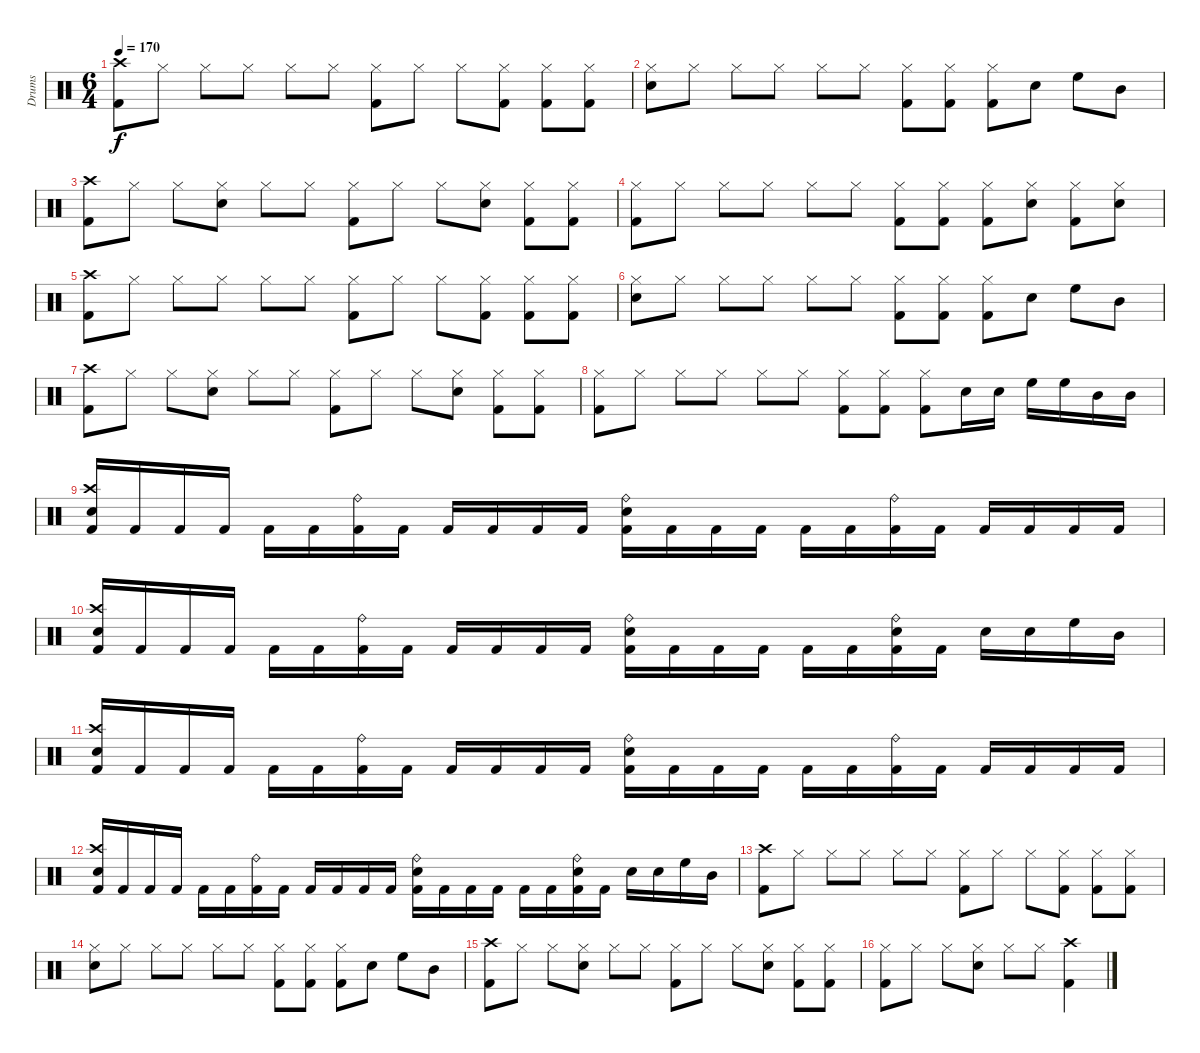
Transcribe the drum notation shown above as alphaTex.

\track ("Drums" "Drums") {instrument percussion}
\staff {score}
\articulation defaults
\ts (6 4)
\tempo 170
\clef neutral
\ks c
("Kick (hit) 2" "Crash high (hit)").8{dy f} "Hi-Hat (closed)".8 "Hi-Hat (closed)".8 "Hi-Hat (closed)".8 "Hi-Hat (closed)".8 "Hi-Hat (closed)".8 ("Kick (hit) 2" "Hi-Hat (closed)").8 "Hi-Hat (closed)".8 "Hi-Hat (closed)".8 ("Kick (hit) 2" "Hi-Hat (closed)").8 ("Kick (hit) 2" "Hi-Hat (closed)").8 ("Kick (hit) 2" "Hi-Hat (closed)").8 |
("Snare (hit) 2" "Hi-Hat (closed)").8 "Hi-Hat (closed)".8 "Hi-Hat (closed)".8 "Hi-Hat (closed)".8 "Hi-Hat (closed)".8 "Hi-Hat (closed)".8 ("Kick (hit) 2" "Hi-Hat (closed)").8 ("Kick (hit) 2" "Hi-Hat (closed)").8 ("Kick (hit) 2" "Hi-Hat (closed)").8 "Snare (hit) 2".8 "High Floor Tom (hit)".8 "Mid Tom (hit)".8 |
("Kick (hit) 2" "Crash high (hit)").8 "Hi-Hat (closed)".8 "Hi-Hat (closed)".8 ("Snare (hit) 2" "Hi-Hat (closed)").8 "Hi-Hat (closed)".8 "Hi-Hat (closed)".8 ("Kick (hit) 2" "Hi-Hat (closed)").8 "Hi-Hat (closed)".8 "Hi-Hat (closed)".8 ("Snare (hit) 2" "Hi-Hat (closed)").8 ("Kick (hit) 2" "Hi-Hat (closed)").8 ("Kick (hit) 2" "Hi-Hat (closed)").8 |
("Kick (hit) 2" "Hi-Hat (closed)").8 "Hi-Hat (closed)".8 "Hi-Hat (closed)".8 "Hi-Hat (closed)".8 "Hi-Hat (closed)".8 "Hi-Hat (closed)".8 ("Kick (hit) 2" "Hi-Hat (closed)").8 ("Kick (hit) 2" "Hi-Hat (closed)").8 ("Kick (hit) 2" "Hi-Hat (closed)").8 ("Snare (hit) 2" "Hi-Hat (closed)").8 ("Kick (hit) 2" "Hi-Hat (closed)").8 ("Snare (hit) 2" "Hi-Hat (closed)").8 |
("Kick (hit) 2" "Crash high (hit)").8 "Hi-Hat (closed)".8 "Hi-Hat (closed)".8 "Hi-Hat (closed)".8 "Hi-Hat (closed)".8 "Hi-Hat (closed)".8 ("Kick (hit) 2" "Hi-Hat (closed)").8 "Hi-Hat (closed)".8 "Hi-Hat (closed)".8 ("Kick (hit) 2" "Hi-Hat (closed)").8 ("Kick (hit) 2" "Hi-Hat (closed)").8 ("Kick (hit) 2" "Hi-Hat (closed)").8 |
("Snare (hit) 2" "Hi-Hat (closed)").8 "Hi-Hat (closed)".8 "Hi-Hat (closed)".8 "Hi-Hat (closed)".8 "Hi-Hat (closed)".8 "Hi-Hat (closed)".8 ("Kick (hit) 2" "Hi-Hat (closed)").8 ("Kick (hit) 2" "Hi-Hat (closed)").8 ("Kick (hit) 2" "Hi-Hat (closed)").8 "Snare (hit) 2".8 "High Floor Tom (hit)".8 "Mid Tom (hit)".8 |
("Kick (hit) 2" "Crash high (hit)").8 "Hi-Hat (closed)".8 "Hi-Hat (closed)".8 ("Snare (hit) 2" "Hi-Hat (closed)").8 "Hi-Hat (closed)".8 "Hi-Hat (closed)".8 ("Kick (hit) 2" "Hi-Hat (closed)").8 "Hi-Hat (closed)".8 "Hi-Hat (closed)".8 ("Snare (hit) 2" "Hi-Hat (closed)").8 ("Kick (hit) 2" "Hi-Hat (closed)").8 ("Kick (hit) 2" "Hi-Hat (closed)").8 |
("Kick (hit) 2" "Hi-Hat (closed)").8 "Hi-Hat (closed)".8 "Hi-Hat (closed)".8 "Hi-Hat (closed)".8 "Hi-Hat (closed)".8 "Hi-Hat (closed)".8 ("Kick (hit) 2" "Hi-Hat (closed)").8 ("Kick (hit) 2" "Hi-Hat (closed)").8 ("Kick (hit) 2" "Hi-Hat (closed)").8 "Snare (hit) 2".16 "Snare (hit) 2".16 "High Floor Tom (hit)".16 "High Floor Tom (hit)".16 "Mid Tom (hit)".16 "Mid Tom (hit)".16 |
("Snare (hit) 2" "Crash high (hit)" "Kick (hit) 2").16 "Kick (hit) 2".16 "Kick (hit) 2".16 "Kick (hit) 2".16 "Kick (hit) 2".16 "Kick (hit) 2".16 ("Kick (hit) 2" "Ride (bell)").16 "Kick (hit) 2".16 "Kick (hit) 2".16 "Kick (hit) 2".16 "Kick (hit) 2".16 "Kick (hit) 2".16 ("Snare (hit) 2" "Kick (hit) 2" "Ride (bell)").16 "Kick (hit) 2".16 "Kick (hit) 2".16 "Kick (hit) 2".16 "Kick (hit) 2".16 "Kick (hit) 2".16 ("Kick (hit) 2" "Ride (bell)").16 "Kick (hit) 2".16 "Kick (hit) 2".16 "Kick (hit) 2".16 "Kick (hit) 2".16 "Kick (hit) 2".16 |
("Snare (hit) 2" "Crash high (hit)" "Kick (hit) 2").16 "Kick (hit) 2".16 "Kick (hit) 2".16 "Kick (hit) 2".16 "Kick (hit) 2".16 "Kick (hit) 2".16 ("Kick (hit) 2" "Ride (bell)").16 "Kick (hit) 2".16 "Kick (hit) 2".16 "Kick (hit) 2".16 "Kick (hit) 2".16 "Kick (hit) 2".16 ("Snare (hit) 2" "Kick (hit) 2" "Ride (bell)").16 "Kick (hit) 2".16 "Kick (hit) 2".16 "Kick (hit) 2".16 "Kick (hit) 2".16 "Kick (hit) 2".16 ("Snare (hit) 2" "Kick (hit) 2" "Ride (bell)").16 "Kick (hit) 2".16 "Snare (hit) 2".16 "Snare (hit) 2".16 "High Floor Tom (hit)".16 "Mid Tom (hit)".16 |
("Snare (hit) 2" "Crash high (hit)" "Kick (hit) 2").16 "Kick (hit) 2".16 "Kick (hit) 2".16 "Kick (hit) 2".16 "Kick (hit) 2".16 "Kick (hit) 2".16 ("Kick (hit) 2" "Ride (bell)").16 "Kick (hit) 2".16 "Kick (hit) 2".16 "Kick (hit) 2".16 "Kick (hit) 2".16 "Kick (hit) 2".16 ("Snare (hit) 2" "Kick (hit) 2" "Ride (bell)").16 "Kick (hit) 2".16 "Kick (hit) 2".16 "Kick (hit) 2".16 "Kick (hit) 2".16 "Kick (hit) 2".16 ("Kick (hit) 2" "Ride (bell)").16 "Kick (hit) 2".16 "Kick (hit) 2".16 "Kick (hit) 2".16 "Kick (hit) 2".16 "Kick (hit) 2".16 |
("Snare (hit) 2" "Crash high (hit)" "Kick (hit) 2").16 "Kick (hit) 2".16 "Kick (hit) 2".16 "Kick (hit) 2".16 "Kick (hit) 2".16 "Kick (hit) 2".16 ("Kick (hit) 2" "Ride (bell)").16 "Kick (hit) 2".16 "Kick (hit) 2".16 "Kick (hit) 2".16 "Kick (hit) 2".16 "Kick (hit) 2".16 ("Snare (hit) 2" "Kick (hit) 2" "Ride (bell)").16 "Kick (hit) 2".16 "Kick (hit) 2".16 "Kick (hit) 2".16 "Kick (hit) 2".16 "Kick (hit) 2".16 ("Snare (hit) 2" "Kick (hit) 2" "Ride (bell)").16 "Kick (hit) 2".16 "Snare (hit) 2".16 "Snare (hit) 2".16 "High Floor Tom (hit)".16 "Mid Tom (hit)".16 |
("Kick (hit) 2" "Crash high (hit)").8 "Hi-Hat (closed)".8 "Hi-Hat (closed)".8 "Hi-Hat (closed)".8 "Hi-Hat (closed)".8 "Hi-Hat (closed)".8 ("Kick (hit) 2" "Hi-Hat (closed)").8 "Hi-Hat (closed)".8 "Hi-Hat (closed)".8 ("Kick (hit) 2" "Hi-Hat (closed)").8 ("Kick (hit) 2" "Hi-Hat (closed)").8 ("Kick (hit) 2" "Hi-Hat (closed)").8 |
("Snare (hit) 2" "Hi-Hat (closed)").8 "Hi-Hat (closed)".8 "Hi-Hat (closed)".8 "Hi-Hat (closed)".8 "Hi-Hat (closed)".8 "Hi-Hat (closed)".8 ("Kick (hit) 2" "Hi-Hat (closed)").8 ("Kick (hit) 2" "Hi-Hat (closed)").8 ("Kick (hit) 2" "Hi-Hat (closed)").8 "Snare (hit) 2".8 "High Floor Tom (hit)".8 "Mid Tom (hit)".8 |
("Kick (hit) 2" "Crash high (hit)").8 "Hi-Hat (closed)".8 "Hi-Hat (closed)".8 ("Snare (hit) 2" "Hi-Hat (closed)").8 "Hi-Hat (closed)".8 "Hi-Hat (closed)".8 ("Kick (hit) 2" "Hi-Hat (closed)").8 "Hi-Hat (closed)".8 "Hi-Hat (closed)".8 ("Snare (hit) 2" "Hi-Hat (closed)").8 ("Kick (hit) 2" "Hi-Hat (closed)").8 ("Kick (hit) 2" "Hi-Hat (closed)").8 |
("Kick (hit) 2" "Hi-Hat (closed)").8 "Hi-Hat (closed)".8 "Hi-Hat (closed)".8 ("Snare (hit) 2" "Hi-Hat (closed)").8 "Hi-Hat (closed)".8 "Hi-Hat (closed)".8 ("Kick (hit) 2" "Crash high (hit)").4
